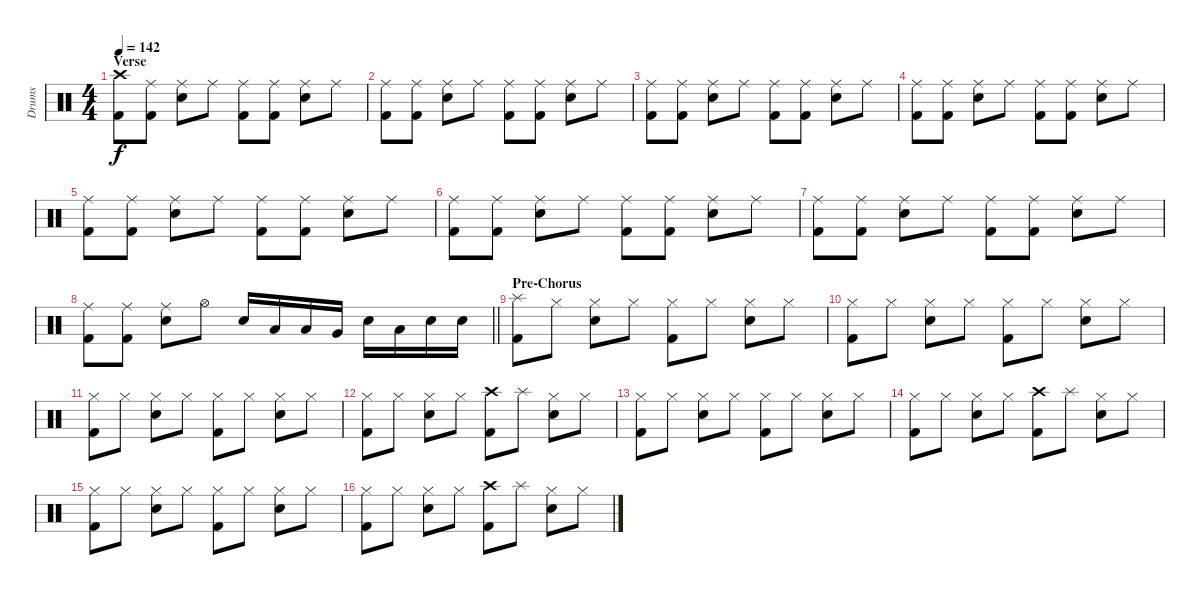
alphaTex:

\track ("Drums" "Drums") {instrument percussion}
\staff {score}
\articulation defaults
\ts (4 4)
\section ("" "Verse")
\tempo 142
\clef neutral
\ks c
("Crash high (hit)" "Kick (hit) 2").8{dy f} ("Ride (middle)" "Kick (hit) 2").8 ("Ride (middle)" "Electric Snare (hit)").8 "Ride (middle)".8 ("Ride (middle)" "Kick (hit) 2").8 ("Ride (middle)" "Kick (hit) 2").8 ("Ride (middle)" "Electric Snare (hit)").8 "Ride (middle)".8 |
("Ride (middle)" "Kick (hit) 2").8 ("Ride (middle)" "Kick (hit) 2").8 ("Ride (middle)" "Electric Snare (hit)").8 "Ride (middle)".8 ("Ride (middle)" "Kick (hit) 2").8 ("Ride (middle)" "Kick (hit) 2").8 ("Ride (middle)" "Electric Snare (hit)").8 "Ride (middle)".8 |
("Ride (middle)" "Kick (hit) 2").8 ("Ride (middle)" "Kick (hit) 2").8 ("Ride (middle)" "Electric Snare (hit)").8 "Ride (middle)".8 ("Ride (middle)" "Kick (hit) 2").8 ("Ride (middle)" "Kick (hit) 2").8 ("Ride (middle)" "Electric Snare (hit)").8 "Ride (middle)".8 |
("Ride (middle)" "Kick (hit) 2").8 ("Ride (middle)" "Kick (hit) 2").8 ("Ride (middle)" "Electric Snare (hit)").8 "Ride (middle)".8 ("Ride (middle)" "Kick (hit) 2").8 ("Ride (middle)" "Kick (hit) 2").8 ("Ride (middle)" "Electric Snare (hit)").8 "Ride (middle)".8 |
("Ride (middle)" "Kick (hit) 2").8 ("Ride (middle)" "Kick (hit) 2").8 ("Ride (middle)" "Electric Snare (hit)").8 "Ride (middle)".8 ("Ride (middle)" "Kick (hit) 2").8 ("Ride (middle)" "Kick (hit) 2").8 ("Ride (middle)" "Electric Snare (hit)").8 "Ride (middle)".8 |
("Ride (middle)" "Kick (hit) 2").8 ("Ride (middle)" "Kick (hit) 2").8 ("Ride (middle)" "Electric Snare (hit)").8 "Ride (middle)".8 ("Ride (middle)" "Kick (hit) 2").8 ("Ride (middle)" "Kick (hit) 2").8 ("Ride (middle)" "Electric Snare (hit)").8 "Ride (middle)".8 |
("Ride (middle)" "Kick (hit) 2").8 ("Ride (middle)" "Kick (hit) 2").8 ("Ride (middle)" "Electric Snare (hit)").8 "Ride (middle)".8 ("Ride (middle)" "Kick (hit) 2").8 ("Ride (middle)" "Kick (hit) 2").8 ("Ride (middle)" "Electric Snare (hit)").8 "Ride (middle)".8 |
\barLineRight lightlight
("Ride (middle)" "Kick (hit) 2").8 ("Ride (middle)" "Kick (hit) 2").8 ("Ride (middle)" "Electric Snare (hit)").8 "Hi-Hat (open)".8 "Electric Snare (hit)".16 "Low Tom (hit)".16 "Low Tom (hit)".16 "Very Low Tom (hit)".16 "Electric Snare (hit)".16 "Low Tom (hit)".16 "Electric Snare (hit)".16 "Electric Snare (hit)".16 |
\section ("" "Pre-Chorus")
("Splash (hit)" "Kick (hit) 2").8 "Hi-Hat (closed)".8 ("Hi-Hat (closed)" "Electric Snare (hit)").8 "Hi-Hat (closed)".8 ("Hi-Hat (closed)" "Kick (hit) 2").8 "Hi-Hat (closed)".8 ("Hi-Hat (closed)" "Electric Snare (hit)").8 "Hi-Hat (closed)".8 |
("Hi-Hat (closed)" "Kick (hit) 2").8 "Hi-Hat (closed)".8 ("Hi-Hat (closed)" "Electric Snare (hit)").8 "Hi-Hat (closed)".8 ("Hi-Hat (closed)" "Kick (hit) 2").8 "Hi-Hat (closed)".8 ("Hi-Hat (closed)" "Electric Snare (hit)").8 "Hi-Hat (closed)".8 |
("Hi-Hat (closed)" "Kick (hit) 2").8 "Hi-Hat (closed)".8 ("Hi-Hat (closed)" "Electric Snare (hit)").8 "Hi-Hat (closed)".8 ("Hi-Hat (closed)" "Kick (hit) 2").8 "Hi-Hat (closed)".8 ("Hi-Hat (closed)" "Electric Snare (hit)").8 "Hi-Hat (closed)".8 |
("Hi-Hat (closed)" "Kick (hit) 2").8 "Hi-Hat (closed)".8 ("Hi-Hat (closed)" "Electric Snare (hit)").8 "Hi-Hat (closed)".8 ("Crash high (hit)" "Kick (hit) 2").8 "Splash (hit)".8 ("Hi-Hat (closed)" "Electric Snare (hit)").8 "Hi-Hat (closed)".8 |
("Hi-Hat (closed)" "Kick (hit) 2").8 "Hi-Hat (closed)".8 ("Hi-Hat (closed)" "Electric Snare (hit)").8 "Hi-Hat (closed)".8 ("Hi-Hat (closed)" "Kick (hit) 2").8 "Hi-Hat (closed)".8 ("Hi-Hat (closed)" "Electric Snare (hit)").8 "Hi-Hat (closed)".8 |
("Hi-Hat (closed)" "Kick (hit) 2").8 "Hi-Hat (closed)".8 ("Hi-Hat (closed)" "Electric Snare (hit)").8 "Hi-Hat (closed)".8 ("Crash high (hit)" "Kick (hit) 2").8 "Splash (hit)".8 ("Hi-Hat (closed)" "Electric Snare (hit)").8 "Hi-Hat (closed)".8 |
("Hi-Hat (closed)" "Kick (hit) 2").8 "Hi-Hat (closed)".8 ("Hi-Hat (closed)" "Electric Snare (hit)").8 "Hi-Hat (closed)".8 ("Hi-Hat (closed)" "Kick (hit) 2").8 "Hi-Hat (closed)".8 ("Hi-Hat (closed)" "Electric Snare (hit)").8 "Hi-Hat (closed)".8 |
("Hi-Hat (closed)" "Kick (hit) 2").8 "Hi-Hat (closed)".8 ("Hi-Hat (closed)" "Electric Snare (hit)").8 "Hi-Hat (closed)".8 ("Crash high (hit)" "Kick (hit) 2").8 "Splash (hit)".8 ("Hi-Hat (closed)" "Electric Snare (hit)").8 "Hi-Hat (closed)".8
